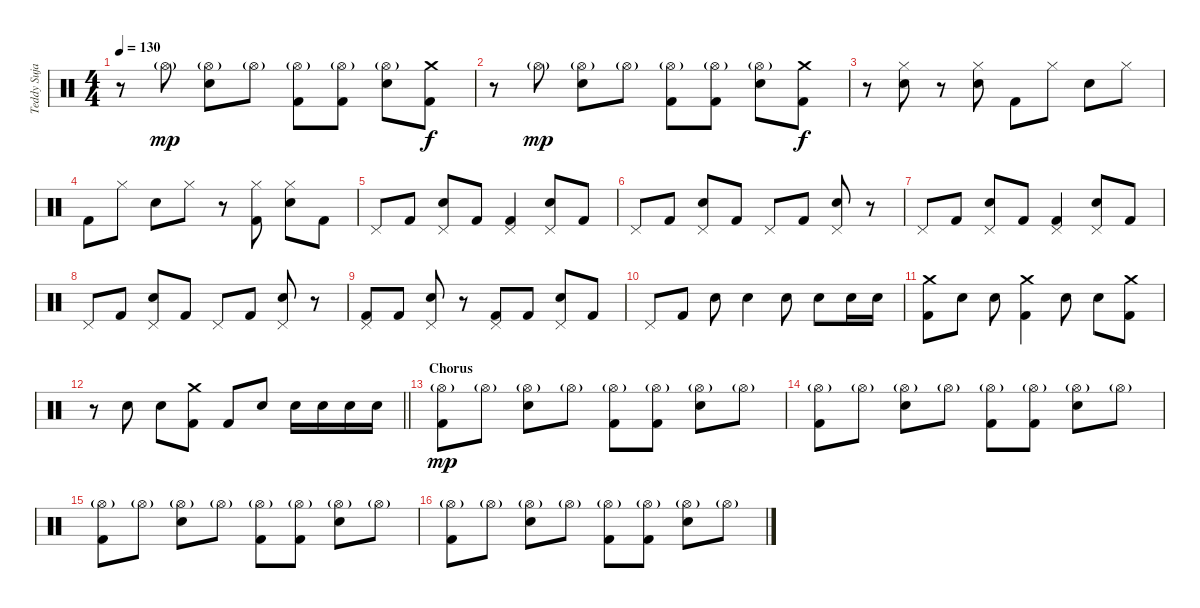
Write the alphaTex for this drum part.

\track ("Teddy Sujaya" "Teddy Suja") {instrument percussion}
\staff {score}
\articulation defaults
\ts (4 4)
\tempo 130
\clef neutral
\ks c
r.8{dy f} "Hi-Hat (open)"{g}.8{dy mp} ("Hi-Hat (open)"{g} "Electric Snare (hit)").8 "Hi-Hat (open)"{g}.8 ("Hi-Hat (open)"{g} "Kick (hit) 2").8 ("Hi-Hat (open)"{g} "Kick (hit) 2").8 ("Hi-Hat (open)"{g} "Electric Snare (hit)").8 ("Crash medium (hit)" "Kick (hit) 2").8{dy f} |
r.8 "Hi-Hat (open)"{g}.8{dy mp} ("Hi-Hat (open)"{g} "Electric Snare (hit)").8 "Hi-Hat (open)"{g}.8 ("Hi-Hat (open)"{g} "Kick (hit) 2").8 ("Hi-Hat (open)"{g} "Kick (hit) 2").8 ("Hi-Hat (open)"{g} "Electric Snare (hit)").8 ("Crash medium (hit)" "Kick (hit) 2").8{dy f} |
r.8 ("Hi-Hat (closed)" "Electric Snare (hit)").8 r.8 ("Hi-Hat (closed)" "Electric Snare (hit)").8 "Kick (hit) 2".8 "Hi-Hat (closed)".8 "Electric Snare (hit)".8 "Hi-Hat (closed)".8 |
"Kick (hit) 2".8 "Hi-Hat (closed)".8 "Electric Snare (hit)".8 "Hi-Hat (closed)".8 r.8 ("Hi-Hat (closed)" "Kick (hit) 2").8 ("Hi-Hat (closed)" "Electric Snare (hit)").8 "Kick (hit) 2".8 |
"Pedal Hi-Hat (hit)".8 "Kick (hit) 2".8 ("Pedal Hi-Hat (hit)" "Electric Snare (hit)").8 "Kick (hit) 2".8 ("Pedal Hi-Hat (hit)" "Kick (hit) 2").4 ("Pedal Hi-Hat (hit)" "Electric Snare (hit)").8 "Kick (hit) 2".8 |
"Pedal Hi-Hat (hit)".8 "Kick (hit) 2".8 ("Pedal Hi-Hat (hit)" "Electric Snare (hit)").8 "Kick (hit) 2".8 "Pedal Hi-Hat (hit)".8 "Kick (hit) 2".8 ("Pedal Hi-Hat (hit)" "Electric Snare (hit)").8 r.8 |
"Pedal Hi-Hat (hit)".8 "Kick (hit) 2".8 ("Pedal Hi-Hat (hit)" "Electric Snare (hit)").8 "Kick (hit) 2".8 ("Pedal Hi-Hat (hit)" "Kick (hit) 2").4 ("Pedal Hi-Hat (hit)" "Electric Snare (hit)").8 "Kick (hit) 2".8 |
"Pedal Hi-Hat (hit)".8 "Kick (hit) 2".8 ("Pedal Hi-Hat (hit)" "Electric Snare (hit)").8 "Kick (hit) 2".8 "Pedal Hi-Hat (hit)".8 "Kick (hit) 2".8 ("Pedal Hi-Hat (hit)" "Electric Snare (hit)").8 r.8 |
("Pedal Hi-Hat (hit)" "Kick (hit) 2").8 "Kick (hit) 2".8 ("Pedal Hi-Hat (hit)" "Electric Snare (hit)").8 r.8 ("Pedal Hi-Hat (hit)" "Kick (hit) 2").8 "Kick (hit) 2".8 ("Pedal Hi-Hat (hit)" "Electric Snare (hit)").8 "Kick (hit) 2".8 |
"Pedal Hi-Hat (hit)".8 "Kick (hit) 2".8 "Electric Snare (hit)".8 "Electric Snare (hit)".4 "Electric Snare (hit)".8 "Electric Snare (hit)".8 "Electric Snare (hit)".16 "Electric Snare (hit)".16 |
("Crash medium (hit)" "Kick (hit) 2").8 "Electric Snare (hit)".8 "Electric Snare (hit)".8 ("Crash medium (hit)" "Kick (hit) 2").4 "Electric Snare (hit)".8 "Electric Snare (hit)".8 ("Crash medium (hit)" "Kick (hit) 2").8 |
\barLineRight lightlight
r.8 "Electric Snare (hit)".8 "Electric Snare (hit)".8 ("Crash medium (hit)" "Kick (hit) 2").8 "Kick (hit) 2".8 "Electric Snare (hit)".8 "Electric Snare (hit)".16 "Electric Snare (hit)".16 "Electric Snare (hit)".16 "Electric Snare (hit)".16 |
\section ("" "Chorus")
("Hi-Hat (open)"{g} "Kick (hit) 2").8{dy mp} "Hi-Hat (open)"{g}.8 ("Hi-Hat (open)"{g} "Electric Snare (hit)").8 "Hi-Hat (open)"{g}.8 ("Hi-Hat (open)"{g} "Kick (hit) 2").8 ("Hi-Hat (open)"{g} "Kick (hit) 2").8 ("Hi-Hat (open)"{g} "Electric Snare (hit)").8 "Hi-Hat (open)"{g}.8 |
("Hi-Hat (open)"{g} "Kick (hit) 2").8 "Hi-Hat (open)"{g}.8 ("Hi-Hat (open)"{g} "Electric Snare (hit)").8 "Hi-Hat (open)"{g}.8 ("Hi-Hat (open)"{g} "Kick (hit) 2").8 ("Hi-Hat (open)"{g} "Kick (hit) 2").8 ("Hi-Hat (open)"{g} "Electric Snare (hit)").8 "Hi-Hat (open)"{g}.8 |
("Hi-Hat (open)"{g} "Kick (hit) 2").8 "Hi-Hat (open)"{g}.8 ("Hi-Hat (open)"{g} "Electric Snare (hit)").8 "Hi-Hat (open)"{g}.8 ("Hi-Hat (open)"{g} "Kick (hit) 2").8 ("Hi-Hat (open)"{g} "Kick (hit) 2").8 ("Hi-Hat (open)"{g} "Electric Snare (hit)").8 "Hi-Hat (open)"{g}.8 |
("Hi-Hat (open)"{g} "Kick (hit) 2").8 "Hi-Hat (open)"{g}.8 ("Hi-Hat (open)"{g} "Electric Snare (hit)").8 "Hi-Hat (open)"{g}.8 ("Hi-Hat (open)"{g} "Kick (hit) 2").8 ("Hi-Hat (open)"{g} "Kick (hit) 2").8 ("Hi-Hat (open)"{g} "Electric Snare (hit)").8 "Hi-Hat (open)"{g}.8
